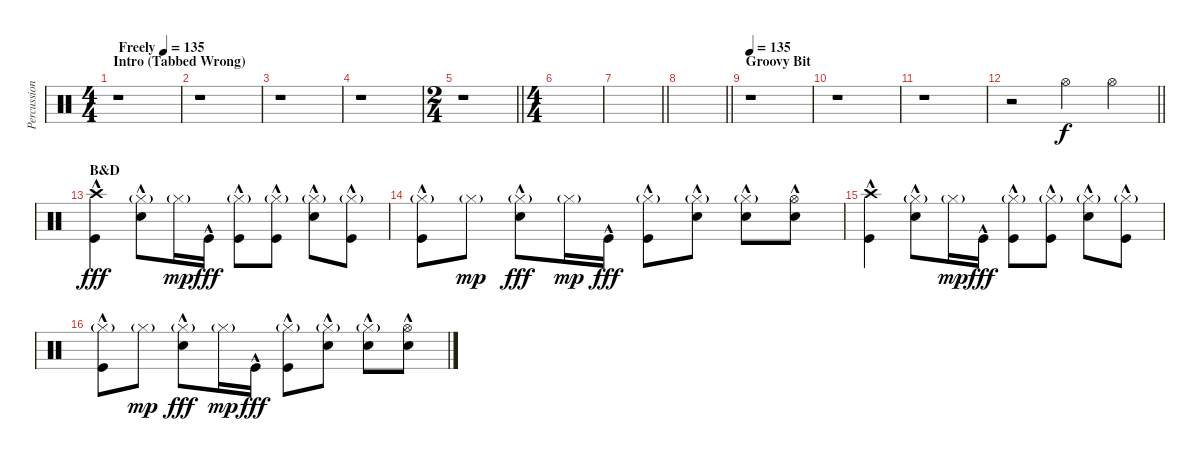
\track ("Percussion" "Percussion") {instrument percussion}
\staff {score}
\articulation defaults
\ts (4 4)
\section ("" "Intro (Tabbed Wrong)")
\tempo (135 "Freely")
\clef neutral
\ks c
r.1{dy f} |
r.1 |
r.1 |
r.1 |
\ts (2 4)
\barLineRight lightlight
r.1 |
\ts (4 4)
|
\barLineRight lightlight
|
\barLineRight lightlight
|
\section ("" "Groovy Bit")
\tempo 135
r.1 |
r.1 |
r.1 |
\barLineRight lightlight
r.2 "Hi-Hat (open)".4 "Hi-Hat (open)".4 |
\section ("" "B&D")
("Crash high (hit)" "Kick (hit)"{hac}).4{dy fff} ("Hi-Hat (closed)"{g} "Snare (hit) 2"{hac}).8 "Hi-Hat (closed)"{g}.16{dy mp} "Kick (hit)"{hac}.16{dy fff} ("Hi-Hat (closed)"{g} "Kick (hit)"{hac}).8 ("Hi-Hat (closed)"{g} "Kick (hit)"{hac}).8 ("Hi-Hat (closed)"{g} "Snare (hit) 2"{hac}).8 ("Hi-Hat (closed)"{g} "Kick (hit)"{hac}).8 |
("Hi-Hat (closed)"{g} "Kick (hit)"{hac}).8 "Hi-Hat (closed)"{g}.8{dy mp} ("Hi-Hat (closed)"{g} "Snare (hit) 2"{hac}).8{dy fff} "Hi-Hat (closed)"{g}.16{dy mp} "Kick (hit)"{hac}.16{dy fff} ("Hi-Hat (closed)"{g} "Kick (hit)"{hac}).8 ("Hi-Hat (closed)"{g} "Snare (hit) 2"{hac}).8 ("Hi-Hat (closed)"{g} "Snare (hit) 2"{hac}).8 ("Hi-Hat (open)" "Snare (hit) 2"{hac}).8 |
("Crash high (hit)" "Kick (hit)"{hac}).4 ("Hi-Hat (closed)"{g} "Snare (hit) 2"{hac}).8 "Hi-Hat (closed)"{g}.16{dy mp} "Kick (hit)"{hac}.16{dy fff} ("Hi-Hat (closed)"{g} "Kick (hit)"{hac}).8 ("Hi-Hat (closed)"{g} "Kick (hit)"{hac}).8 ("Hi-Hat (closed)"{g} "Snare (hit) 2"{hac}).8 ("Hi-Hat (closed)"{g} "Kick (hit)"{hac}).8 |
("Hi-Hat (closed)"{g} "Kick (hit)"{hac}).8 "Hi-Hat (closed)"{g}.8{dy mp} ("Hi-Hat (closed)"{g} "Snare (hit) 2"{hac}).8{dy fff} "Hi-Hat (closed)"{g}.16{dy mp} "Kick (hit)"{hac}.16{dy fff} ("Hi-Hat (closed)"{g} "Kick (hit)"{hac}).8 ("Hi-Hat (closed)"{g} "Snare (hit) 2"{hac}).8 ("Hi-Hat (closed)"{g} "Snare (hit) 2"{hac}).8 ("Hi-Hat (open)" "Snare (hit) 2"{hac}).8
